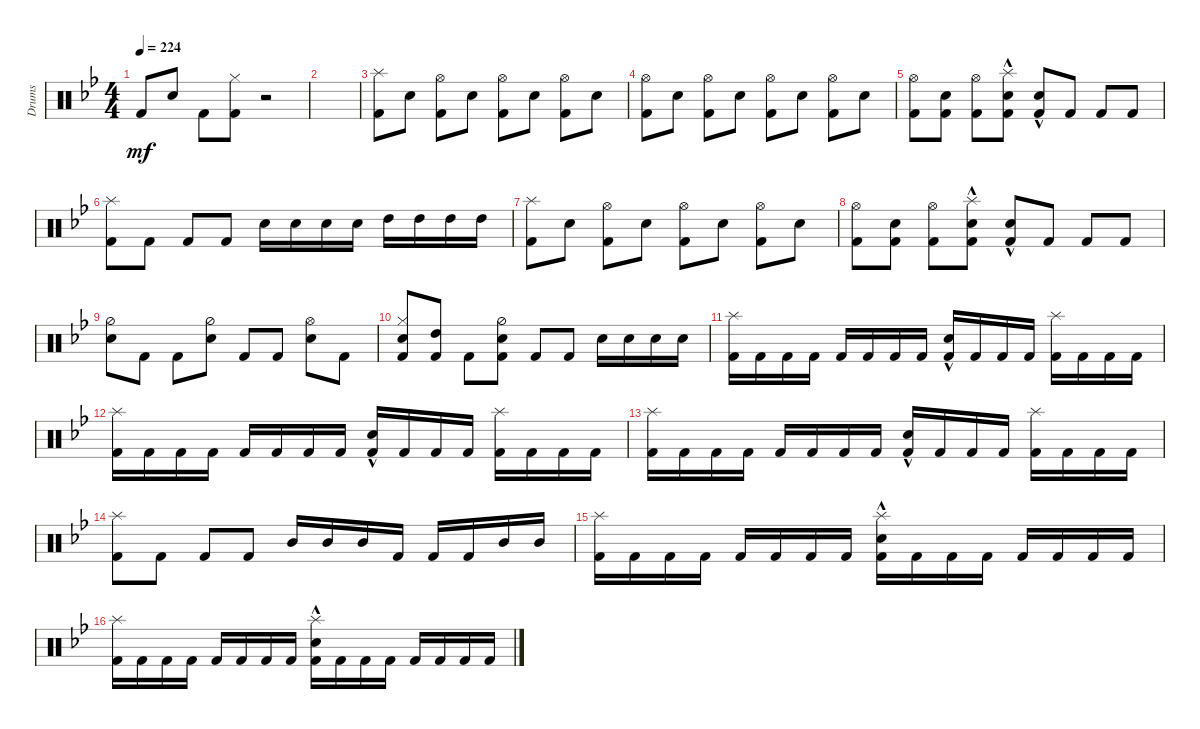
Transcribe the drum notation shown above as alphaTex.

\defaultSystemsLayout 4
\bracketExtendMode groupsimilarinstruments
\otherSystemsTrackNameOrientation horizontal
\track ("Drumkit" "Drums") {instrument percussion}
\staff {score}
\articulation defaults
\ts (4 4)
\tempo 224
\clef neutral
\scale
0.474178
\ks bb "Kick (hit) 2"{acc forcenatural}.8{dy mf beam Up} "Snare (hit) 2"{acc forcenatural}.8{beam Up} "Kick (hit) 2"{acc forcenatural}.8{beam Down}
("Hi-Hat (closed)"{acc forcenatural} "Kick (hit) 2"{acc forcenatural}).8{beam Down} r.2{beam Down} |
\scale
0.262911 |
\scale
0.262911 ("Kick (hit) 2"{acc forcenatural} "Splash (hit)"{acc forcenatural}).8{beam Down} "Snare (hit) 2"{acc forcenatural}.8{beam Down} ("Kick (hit) 2"{acc forcenatural} "Hi-Hat (open)"{acc forcenatural}).8{beam Down} "Snare (hit) 2"{acc forcenatural}.8{beam Down} ("Hi-Hat (open)"{acc forcenatural} "Kick (hit) 2"{acc forcenatural}).8{beam Down} "Snare (hit) 2"{acc forcenatural}.8{beam Down} ("Kick (hit) 2"{acc forcenatural} "Hi-Hat (open)"{acc forcenatural}).8{beam Down} "Snare (hit) 2"{acc forcenatural}.8{beam Down} |
\scale
0.333333 ("Hi-Hat (open)"{acc forcenatural} "Kick (hit) 2"{acc forcenatural}).8{beam Down} "Snare (hit) 2"{acc forcenatural}.8{beam Down} ("Kick (hit) 2"{acc forcenatural} "Hi-Hat (open)"{acc forcenatural}).8{beam Down} "Snare (hit) 2"{acc forcenatural}.8{beam Down} ("Hi-Hat (open)"{acc forcenatural} "Kick (hit) 2"{acc forcenatural}).8{beam Down} "Snare (hit) 2"{acc forcenatural}.8{beam Down} ("Kick (hit) 2"{acc forcenatural} "Hi-Hat (open)"{acc forcenatural}).8{beam Down} "Snare (hit) 2"{acc forcenatural}.8{beam Down} |
\scale
0.333333 ("Hi-Hat (open)"{acc forcenatural} "Kick (hit) 2"{acc forcenatural}).8{beam Down} ("Kick (hit) 2"{acc forcenatural} "Snare (hit) 2"{acc forcenatural}).8{beam Down} ("Kick (hit) 2"{acc forcenatural} "Hi-Hat (open)"{acc forcenatural}).8{beam Down} ("Kick (hit) 2"{acc forcenatural} "Splash (hit)"{acc forcenatural} "Snare (hit) 2"{hac acc forcenatural}).8{beam Down} ("Kick (hit) 2"{acc forcenatural} "Snare (hit) 2"{hac acc forcenatural}).8{beam Up} "Kick (hit) 2"{acc forcenatural}.8{beam Up} "Kick (hit) 2"{acc forcenatural}.8{beam Up} "Kick (hit) 2"{acc forcenatural}.8{beam Up} |
\scale
0.333333 ("Kick (hit) 2"{acc forcenatural} "Splash (hit)"{acc forcenatural}).8{beam Down} "Kick (hit) 2"{acc forcenatural}.8{beam Down} "Kick (hit) 2"{acc forcenatural}.8{beam Up} "Kick (hit) 2"{acc forcenatural}.8{beam Up} "Snare (hit) 2"{acc forcenatural}.16{beam Down} "Snare (hit) 2"{acc forcenatural}.16{beam Down} "Snare (hit) 2"{acc forcenatural}.16{beam Down} "Snare (hit) 2"{acc forcenatural}.16{beam Down} "High Tom (hit)"{acc forcenatural}.16{beam Down} "High Tom (hit)"{acc forcenatural}.16{beam Down} "High Tom (hit)"{acc forcenatural}.16{beam Down} "High Tom (hit)"{acc forcenatural}.16{beam Down} |
\scale
0.333333 ("Kick (hit) 2"{acc forcenatural} "Splash (hit)"{acc forcenatural}).8{beam Down} "Snare (hit) 2"{acc forcenatural}.8{beam Down} ("Kick (hit) 2"{acc forcenatural} "Hi-Hat (open)"{acc forcenatural}).8{beam Down} "Snare (hit) 2"{acc forcenatural}.8{beam Down} ("Hi-Hat (open)"{acc forcenatural} "Kick (hit) 2"{acc forcenatural}).8{beam Down} "Snare (hit) 2"{acc forcenatural}.8{beam Down} ("Kick (hit) 2"{acc forcenatural} "Hi-Hat (open)"{acc forcenatural}).8{beam Down} "Snare (hit) 2"{acc forcenatural}.8{beam Down} |
\scale
0.333333 ("Hi-Hat (open)"{acc forcenatural} "Kick (hit) 2"{acc forcenatural}).8{beam Down} ("Kick (hit) 2"{acc forcenatural} "Snare (hit) 2"{acc forcenatural}).8{beam Down} ("Kick (hit) 2"{acc forcenatural} "Hi-Hat (open)"{acc forcenatural}).8{beam Down} ("Kick (hit) 2"{acc forcenatural} "Splash (hit)"{acc forcenatural} "Snare (hit) 2"{hac acc forcenatural}).8{beam Down} ("Kick (hit) 2"{acc forcenatural} "Snare (hit) 2"{hac acc forcenatural}).8{beam Up} "Kick (hit) 2"{acc forcenatural}.8{beam Up} "Kick (hit) 2"{acc forcenatural}.8{beam Up} "Kick (hit) 2"{acc forcenatural}.8{beam Up} |
\scale
0.333333 ("Snare (hit) 2"{acc forcenatural} "Hi-Hat (half)"{acc forcenatural}).8{beam Down} "Kick (hit) 2"{acc forcenatural}.8{beam Down} "Kick (hit) 2"{acc forcenatural}.8{beam Down} ("Snare (hit) 2"{acc forcenatural} "Hi-Hat (half)"{acc forcenatural}).8{beam Down} "Kick (hit) 2"{acc forcenatural}.8{beam Up} "Kick (hit) 2"{acc forcenatural}.8{beam Up} ("Snare (hit) 2"{acc forcenatural} "Hi-Hat (open)"{acc forcenatural}).8{beam Down} "Kick (hit) 2"{acc forcenatural}.8{beam Down} |
\scale
0.333333 ("Snare (hit) 2"{acc forcenatural} "Kick (hit) 2"{acc forcenatural} "Hi-Hat (closed)"{acc forcenatural}).8{beam Up} ("High Tom (hit)"{acc forcenatural} "Kick (hit) 2"{acc forcenatural}).8{beam Up} "Kick (hit) 2"{acc forcenatural}.8{beam Down} ("Snare (hit) 2"{acc forcenatural} "Kick (hit) 2"{acc forcenatural} "Hi-Hat (half)"{acc forcenatural}).8{beam Down} "Kick (hit) 2"{acc forcenatural}.8{beam Up} "Kick (hit) 2"{acc forcenatural}.8{beam Up} "Snare (hit) 2"{acc forcenatural}.16{beam Down} "Snare (hit) 2"{acc forcenatural}.16{beam Down} "Snare (hit) 2"{acc forcenatural}.16{beam Down} "Snare (hit) 2"{acc forcenatural}.16{beam Down} |
\scale
0.333333 ("Splash (hit)"{acc forcenatural} "Kick (hit) 2"{acc forcenatural}).16{beam Down} "Kick (hit) 2"{acc forcenatural}.16{beam Down} "Kick (hit) 2"{acc forcenatural}.16{beam Down} "Kick (hit) 2"{acc forcenatural}.16{beam Down} "Kick (hit) 2"{acc forcenatural}.16{beam Up} "Kick (hit) 2"{acc forcenatural}.16{beam Up} "Kick (hit) 2"{acc forcenatural}.16{beam Up} "Kick (hit) 2"{acc forcenatural}.16{beam Up} ("Kick (hit) 2"{acc forcenatural} "Snare (hit) 2"{hac acc forcenatural}).16{beam Up} "Kick (hit) 2"{acc forcenatural}.16{beam Up} "Kick (hit) 2"{acc forcenatural}.16{beam Up} "Kick (hit) 2"{acc forcenatural}.16{beam Up} ("Kick (hit) 2"{acc forcenatural} "Splash (hit)"{acc forcenatural}).16{beam Down} "Kick (hit) 2"{acc forcenatural}.16{beam Down} "Kick (hit) 2"{acc forcenatural}.16{beam Down} "Kick (hit) 2"{acc forcenatural}.16{beam Down} |
\scale
0.333333 ("Splash (hit)"{acc forcenatural} "Kick (hit) 2"{acc forcenatural}).16{beam Down} "Kick (hit) 2"{acc forcenatural}.16{beam Down} "Kick (hit) 2"{acc forcenatural}.16{beam Down} "Kick (hit) 2"{acc forcenatural}.16{beam Down} "Kick (hit) 2"{acc forcenatural}.16{beam Up} "Kick (hit) 2"{acc forcenatural}.16{beam Up} "Kick (hit) 2"{acc forcenatural}.16{beam Up} "Kick (hit) 2"{acc forcenatural}.16{beam Up} ("Kick (hit) 2"{acc forcenatural} "Snare (hit) 2"{hac acc forcenatural}).16{beam Up} "Kick (hit) 2"{acc forcenatural}.16{beam Up} "Kick (hit) 2"{acc forcenatural}.16{beam Up} "Kick (hit) 2"{acc forcenatural}.16{beam Up} ("Kick (hit) 2"{acc forcenatural} "Splash (hit)"{acc forcenatural}).16{beam Down} "Kick (hit) 2"{acc forcenatural}.16{beam Down} "Kick (hit) 2"{acc forcenatural}.16{beam Down} "Kick (hit) 2"{acc forcenatural}.16{beam Down} |
\scale
0.333333 ("Splash (hit)"{acc forcenatural} "Kick (hit) 2"{acc forcenatural}).16{beam Down} "Kick (hit) 2"{acc forcenatural}.16{beam Down} "Kick (hit) 2"{acc forcenatural}.16{beam Down} "Kick (hit) 2"{acc forcenatural}.16{beam Down} "Kick (hit) 2"{acc forcenatural}.16{beam Up} "Kick (hit) 2"{acc forcenatural}.16{beam Up} "Kick (hit) 2"{acc forcenatural}.16{beam Up} "Kick (hit) 2"{acc forcenatural}.16{beam Up} ("Kick (hit) 2"{acc forcenatural} "Snare (hit) 2"{hac acc forcenatural}).16{beam Up} "Kick (hit) 2"{acc forcenatural}.16{beam Up} "Kick (hit) 2"{acc forcenatural}.16{beam Up} "Kick (hit) 2"{acc forcenatural}.16{beam Up} ("Kick (hit) 2"{acc forcenatural} "Splash (hit)"{acc forcenatural}).16{beam Down} "Kick (hit) 2"{acc forcenatural}.16{beam Down} "Kick (hit) 2"{acc forcenatural}.16{beam Down} "Kick (hit) 2"{acc forcenatural}.16{beam Down} |
\scale
0.333333 ("Kick (hit) 2"{acc forcenatural} "Splash (hit)"{acc forcenatural}).8{beam Down} "Kick (hit) 2"{acc forcenatural}.8{beam Down} "Kick (hit) 2"{acc forcenatural}.8{beam Up} "Kick (hit) 2"{acc forcenatural}.8{beam Up} "Mid Tom (hit)"{acc forcenatural}.16{beam Up} "Mid Tom (hit)"{acc forcenatural}.16{beam Up} "Mid Tom (hit)"{acc forcenatural}.16{beam Up} "Kick (hit) 2"{acc forcenatural}.16{beam Up} "Kick (hit) 2"{acc forcenatural}.16{beam Up} "Kick (hit) 2"{acc forcenatural}.16{beam Up} "Mid Tom (hit)"{acc forcenatural}.16{beam Up} "Mid Tom (hit)"{acc forcenatural}.16{beam Up} |
\scale
0.333333 ("Splash (hit)"{acc forcenatural} "Kick (hit) 2"{acc forcenatural}).16{beam Down} "Kick (hit) 2"{acc forcenatural}.16{beam Down} "Kick (hit) 2"{acc forcenatural}.16{beam Down} "Kick (hit) 2"{acc forcenatural}.16{beam Down} "Kick (hit) 2"{acc forcenatural}.16{beam Up} "Kick (hit) 2"{acc forcenatural}.16{beam Up} "Kick (hit) 2"{acc forcenatural}.16{beam Up} "Kick (hit) 2"{acc forcenatural}.16{beam Up} ("Kick (hit) 2"{acc forcenatural} "Snare (hit) 2"{hac acc forcenatural} "Splash (hit)"{acc forcenatural}).16{beam Down} "Kick (hit) 2"{acc forcenatural}.16{beam Down} "Kick (hit) 2"{acc forcenatural}.16{beam Down} "Kick (hit) 2"{acc forcenatural}.16{beam Down} "Kick (hit) 2"{acc forcenatural}.16{beam Up} "Kick (hit) 2"{acc forcenatural}.16{beam Up} "Kick (hit) 2"{acc forcenatural}.16{beam Up} "Kick (hit) 2"{acc forcenatural}.16{beam Up} |
\scale
0.333333 ("Splash (hit)"{acc forcenatural} "Kick (hit) 2"{acc forcenatural}).16{beam Down} "Kick (hit) 2"{acc forcenatural}.16{beam Down} "Kick (hit) 2"{acc forcenatural}.16{beam Down} "Kick (hit) 2"{acc forcenatural}.16{beam Down} "Kick (hit) 2"{acc forcenatural}.16{beam Up} "Kick (hit) 2"{acc forcenatural}.16{beam Up} "Kick (hit) 2"{acc forcenatural}.16{beam Up} "Kick (hit) 2"{acc forcenatural}.16{beam Up} ("Kick (hit) 2"{acc forcenatural} "Snare (hit) 2"{hac acc forcenatural} "Splash (hit)"{acc forcenatural}).16{beam Down} "Kick (hit) 2"{acc forcenatural}.16{beam Down} "Kick (hit) 2"{acc forcenatural}.16{beam Down} "Kick (hit) 2"{acc forcenatural}.16{beam Down} "Kick (hit) 2"{acc forcenatural}.16{beam Up} "Kick (hit) 2"{acc forcenatural}.16{beam Up} "Kick (hit) 2"{acc forcenatural}.16{beam Up} "Kick (hit) 2"{acc forcenatural}.16{beam Up}
